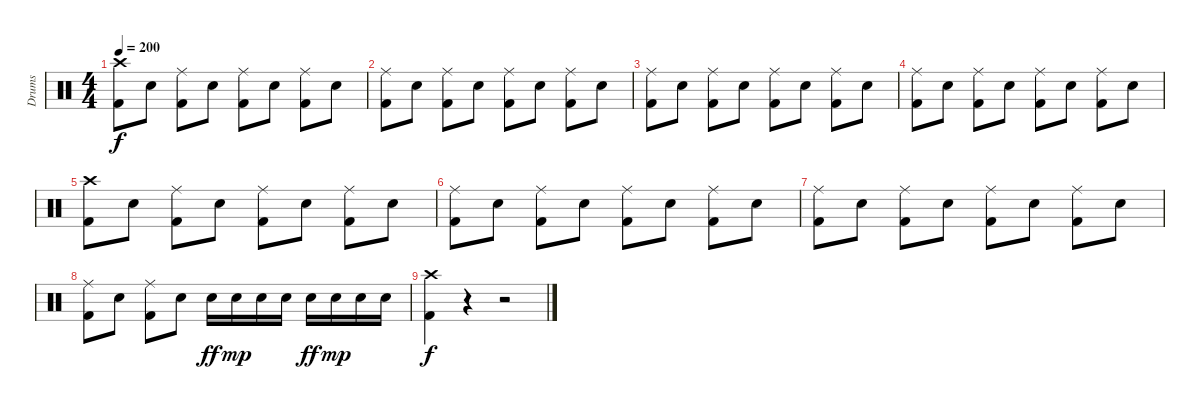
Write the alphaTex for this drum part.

\track ("Drums" "Drums") {instrument percussion}
\staff {score}
\articulation defaults
\ts (4 4)
\tempo 200
\clef neutral
\ks c
("Crash high (hit)" "Kick (hit) 2").8{dy f} "Electric Snare (hit)".8 ("Ride (middle)" "Kick (hit) 2").8 "Electric Snare (hit)".8 ("Ride (middle)" "Kick (hit) 2").8 "Electric Snare (hit)".8 ("Ride (middle)" "Kick (hit) 2").8 "Electric Snare (hit)".8 |
("Ride (middle)" "Kick (hit) 2").8 "Electric Snare (hit)".8 ("Ride (middle)" "Kick (hit) 2").8 "Electric Snare (hit)".8 ("Ride (middle)" "Kick (hit) 2").8 "Electric Snare (hit)".8 ("Ride (middle)" "Kick (hit) 2").8 "Electric Snare (hit)".8 |
("Ride (middle)" "Kick (hit) 2").8 "Electric Snare (hit)".8 ("Ride (middle)" "Kick (hit) 2").8 "Electric Snare (hit)".8 ("Ride (middle)" "Kick (hit) 2").8 "Electric Snare (hit)".8 ("Ride (middle)" "Kick (hit) 2").8 "Electric Snare (hit)".8 |
("Ride (middle)" "Kick (hit) 2").8 "Electric Snare (hit)".8 ("Ride (middle)" "Kick (hit) 2").8 "Electric Snare (hit)".8 ("Ride (middle)" "Kick (hit) 2").8 "Electric Snare (hit)".8 ("Ride (middle)" "Kick (hit) 2").8 "Electric Snare (hit)".8 |
("Crash high (hit)" "Kick (hit) 2").8 "Electric Snare (hit)".8 ("Ride (middle)" "Kick (hit) 2").8 "Electric Snare (hit)".8 ("Ride (middle)" "Kick (hit) 2").8 "Electric Snare (hit)".8 ("Ride (middle)" "Kick (hit) 2").8 "Electric Snare (hit)".8 |
("Ride (middle)" "Kick (hit) 2").8 "Electric Snare (hit)".8 ("Ride (middle)" "Kick (hit) 2").8 "Electric Snare (hit)".8 ("Ride (middle)" "Kick (hit) 2").8 "Electric Snare (hit)".8 ("Ride (middle)" "Kick (hit) 2").8 "Electric Snare (hit)".8 |
("Ride (middle)" "Kick (hit) 2").8 "Electric Snare (hit)".8 ("Ride (middle)" "Kick (hit) 2").8 "Electric Snare (hit)".8 ("Ride (middle)" "Kick (hit) 2").8 "Electric Snare (hit)".8 ("Ride (middle)" "Kick (hit) 2").8 "Electric Snare (hit)".8 |
("Ride (middle)" "Kick (hit) 2").8 "Electric Snare (hit)".8 ("Ride (middle)" "Kick (hit) 2").8 "Electric Snare (hit)".8 "Electric Snare (hit)".16{dy ff} "Electric Snare (hit)".16{dy mp} "Electric Snare (hit)".16 "Electric Snare (hit)".16 "Electric Snare (hit)".16{dy ff} "Electric Snare (hit)".16{dy mp} "Electric Snare (hit)".16 "Electric Snare (hit)".16 |
("Crash high (hit)" "Kick (hit) 2").4{dy f} r.4 r.2
